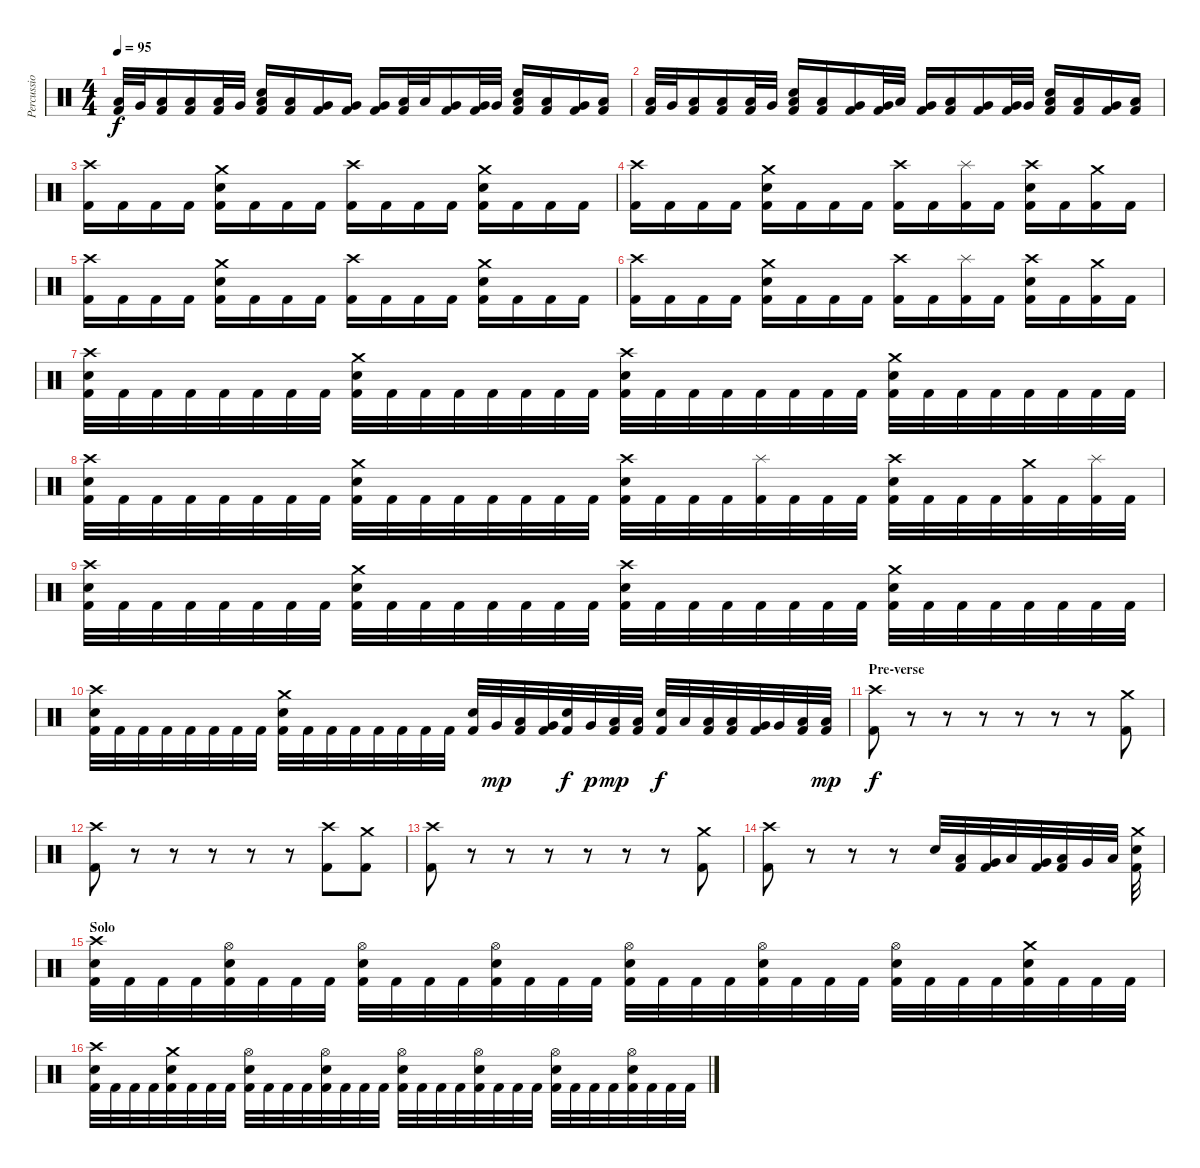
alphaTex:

\track (" Percussions" " Percussio") {instrument percussion}
\staff {score}
\articulation defaults
\ts (4 4)
\tempo 95
\clef neutral
\ks c
("Low Tom (hit)" "Kick (hit) 2").32{dy f} "Very Low Tom (hit)".32 ("Low Floor Tom (hit)" "Kick (hit) 2").16 ("Low Floor Tom (hit)" "Kick (hit) 2").16 ("Low Tom (hit)" "Kick (hit) 2").32 "Very Low Tom (hit)".32 ("Low Floor Tom (hit)" "Electric Snare (hit)" "Kick (hit) 2").16 ("Low Tom (hit)" "Kick (hit) 2").16 ("Very Low Tom (hit)" "Kick (hit) 2").16 ("Very Low Tom (hit)" "Kick (hit) 2").16 ("Very Low Tom (hit)" "Kick (hit) 2").16 ("Low Floor Tom (hit)" "Kick (hit) 2").32 "Low Floor Tom (hit)".32 ("Very Low Tom (hit)" "Kick (hit) 2").16 ("Very Low Tom (hit)" "Kick (hit) 2").32 "Very Low Tom (hit)".32 ("Low Floor Tom (hit)" "Electric Snare (hit)" "Kick (hit) 2").16 ("Low Floor Tom (hit)" "Kick (hit) 2").16 ("Very Low Tom (hit)" "Kick (hit) 2").16 ("Low Floor Tom (hit)" "Kick (hit) 2").16 |
("Low Tom (hit)" "Kick (hit) 2").32 "Very Low Tom (hit)".32 ("Low Floor Tom (hit)" "Kick (hit) 2").16 ("Low Floor Tom (hit)" "Kick (hit) 2").16 ("Low Tom (hit)" "Kick (hit) 2").32 "Very Low Tom (hit)".32 ("Low Floor Tom (hit)" "Electric Snare (hit)" "Kick (hit) 2").16 ("Low Tom (hit)" "Kick (hit) 2").16 ("Very Low Tom (hit)" "Kick (hit) 2").16 ("Very Low Tom (hit)" "Kick (hit) 2").32 "Low Floor Tom (hit)".32 ("Very Low Tom (hit)" "Kick (hit) 2").16 ("Low Floor Tom (hit)" "Kick (hit) 2").16 ("Very Low Tom (hit)" "Kick (hit) 2").16 ("Very Low Tom (hit)" "Kick (hit) 2").32 "Very Low Tom (hit)".32 ("Low Floor Tom (hit)" "Electric Snare (hit)" "Kick (hit) 2").16 ("Low Floor Tom (hit)" "Kick (hit) 2").16 ("Very Low Tom (hit)" "Kick (hit) 2").16 ("Low Floor Tom (hit)" "Kick (hit) 2").16 |
("Crash high (hit)" "Kick (hit) 2").16 "Kick (hit) 2".16 "Kick (hit) 2".16 "Kick (hit) 2".16 ("Crash medium (hit)" "Electric Snare (hit)" "Kick (hit) 2").16 "Kick (hit) 2".16 "Kick (hit) 2".16 "Kick (hit) 2".16 ("Crash high (hit)" "Kick (hit) 2").16 "Kick (hit) 2".16 "Kick (hit) 2".16 "Kick (hit) 2".16 ("Crash medium (hit)" "Electric Snare (hit)" "Kick (hit) 2").16 "Kick (hit) 2".16 "Kick (hit) 2".16 "Kick (hit) 2".16 |
("Crash high (hit)" "Kick (hit) 2").16 "Kick (hit) 2".16 "Kick (hit) 2".16 "Kick (hit) 2".16 ("Crash medium (hit)" "Electric Snare (hit)" "Kick (hit) 2").16 "Kick (hit) 2".16 "Kick (hit) 2".16 "Kick (hit) 2".16 ("Crash high (hit)" "Kick (hit) 2").16 "Kick (hit) 2".16 ("Splash (hit)" "Kick (hit) 2").16 "Kick (hit) 2".16 ("Crash high (hit)" "Electric Snare (hit)" "Kick (hit) 2").16 "Kick (hit) 2".16 ("Crash medium (hit)" "Kick (hit) 2").16 "Kick (hit) 2".16 |
("Crash high (hit)" "Kick (hit) 2").16 "Kick (hit) 2".16 "Kick (hit) 2".16 "Kick (hit) 2".16 ("Crash medium (hit)" "Electric Snare (hit)" "Kick (hit) 2").16 "Kick (hit) 2".16 "Kick (hit) 2".16 "Kick (hit) 2".16 ("Crash high (hit)" "Kick (hit) 2").16 "Kick (hit) 2".16 "Kick (hit) 2".16 "Kick (hit) 2".16 ("Crash medium (hit)" "Electric Snare (hit)" "Kick (hit) 2").16 "Kick (hit) 2".16 "Kick (hit) 2".16 "Kick (hit) 2".16 |
("Crash high (hit)" "Kick (hit) 2").16 "Kick (hit) 2".16 "Kick (hit) 2".16 "Kick (hit) 2".16 ("Crash medium (hit)" "Electric Snare (hit)" "Kick (hit) 2").16 "Kick (hit) 2".16 "Kick (hit) 2".16 "Kick (hit) 2".16 ("Crash high (hit)" "Kick (hit) 2").16 "Kick (hit) 2".16 ("Splash (hit)" "Kick (hit) 2").16 "Kick (hit) 2".16 ("Crash high (hit)" "Electric Snare (hit)" "Kick (hit) 2").16 "Kick (hit) 2".16 ("Crash medium (hit)" "Kick (hit) 2").16 "Kick (hit) 2".16 |
("Crash high (hit)" "Electric Snare (hit)" "Kick (hit) 2").32 "Kick (hit) 2".32 "Kick (hit) 2".32 "Kick (hit) 2".32 "Kick (hit) 2".32 "Kick (hit) 2".32 "Kick (hit) 2".32 "Kick (hit) 2".32 ("Crash medium (hit)" "Electric Snare (hit)" "Kick (hit) 2").32 "Kick (hit) 2".32 "Kick (hit) 2".32 "Kick (hit) 2".32 "Kick (hit) 2".32 "Kick (hit) 2".32 "Kick (hit) 2".32 "Kick (hit) 2".32 ("Crash high (hit)" "Electric Snare (hit)" "Kick (hit) 2").32 "Kick (hit) 2".32 "Kick (hit) 2".32 "Kick (hit) 2".32 "Kick (hit) 2".32 "Kick (hit) 2".32 "Kick (hit) 2".32 "Kick (hit) 2".32 ("Crash medium (hit)" "Electric Snare (hit)" "Kick (hit) 2").32 "Kick (hit) 2".32 "Kick (hit) 2".32 "Kick (hit) 2".32 "Kick (hit) 2".32 "Kick (hit) 2".32 "Kick (hit) 2".32 "Kick (hit) 2".32 |
("Crash high (hit)" "Electric Snare (hit)" "Kick (hit) 2").32 "Kick (hit) 2".32 "Kick (hit) 2".32 "Kick (hit) 2".32 "Kick (hit) 2".32 "Kick (hit) 2".32 "Kick (hit) 2".32 "Kick (hit) 2".32 ("Crash medium (hit)" "Electric Snare (hit)" "Kick (hit) 2").32 "Kick (hit) 2".32 "Kick (hit) 2".32 "Kick (hit) 2".32 "Kick (hit) 2".32 "Kick (hit) 2".32 "Kick (hit) 2".32 "Kick (hit) 2".32 ("Crash high (hit)" "Electric Snare (hit)" "Kick (hit) 2").32 "Kick (hit) 2".32 "Kick (hit) 2".32 "Kick (hit) 2".32 ("Splash (hit)" "Kick (hit) 2").32 "Kick (hit) 2".32 "Kick (hit) 2".32 "Kick (hit) 2".32 ("Crash high (hit)" "Electric Snare (hit)" "Kick (hit) 2").32 "Kick (hit) 2".32 "Kick (hit) 2".32 "Kick (hit) 2".32 ("Crash medium (hit)" "Kick (hit) 2").32 "Kick (hit) 2".32 ("Splash (hit)" "Kick (hit) 2").32 "Kick (hit) 2".32 |
("Crash high (hit)" "Electric Snare (hit)" "Kick (hit) 2").32 "Kick (hit) 2".32 "Kick (hit) 2".32 "Kick (hit) 2".32 "Kick (hit) 2".32 "Kick (hit) 2".32 "Kick (hit) 2".32 "Kick (hit) 2".32 ("Crash medium (hit)" "Electric Snare (hit)" "Kick (hit) 2").32 "Kick (hit) 2".32 "Kick (hit) 2".32 "Kick (hit) 2".32 "Kick (hit) 2".32 "Kick (hit) 2".32 "Kick (hit) 2".32 "Kick (hit) 2".32 ("Crash high (hit)" "Electric Snare (hit)" "Kick (hit) 2").32 "Kick (hit) 2".32 "Kick (hit) 2".32 "Kick (hit) 2".32 "Kick (hit) 2".32 "Kick (hit) 2".32 "Kick (hit) 2".32 "Kick (hit) 2".32 ("Crash medium (hit)" "Electric Snare (hit)" "Kick (hit) 2").32 "Kick (hit) 2".32 "Kick (hit) 2".32 "Kick (hit) 2".32 "Kick (hit) 2".32 "Kick (hit) 2".32 "Kick (hit) 2".32 "Kick (hit) 2".32 |
("Crash high (hit)" "Electric Snare (hit)" "Kick (hit) 2").32 "Kick (hit) 2".32 "Kick (hit) 2".32 "Kick (hit) 2".32 "Kick (hit) 2".32 "Kick (hit) 2".32 "Kick (hit) 2".32 "Kick (hit) 2".32 ("Crash medium (hit)" "Electric Snare (hit)" "Kick (hit) 2").32 "Kick (hit) 2".32 "Kick (hit) 2".32 "Kick (hit) 2".32 "Kick (hit) 2".32 "Kick (hit) 2".32 "Kick (hit) 2".32 "Kick (hit) 2".32 ("Electric Snare (hit)" "Kick (hit) 2").32 "Very Low Tom (hit)".32{dy mp} ("Low Tom (hit)" "Kick (hit) 2").32 ("Very Low Tom (hit)" "Kick (hit) 2").32 ("Electric Snare (hit)" "Kick (hit) 2").32{dy f} "Very Low Tom (hit)".32{dy p} ("Low Floor Tom (hit)" "Kick (hit) 2").32{dy mp} ("Low Floor Tom (hit)" "Kick (hit) 2").32 ("Electric Snare (hit)" "Kick (hit) 2").32{dy f} "Low Tom (hit)".32 ("Low Tom (hit)" "Kick (hit) 2").32 ("Low Tom (hit)" "Kick (hit) 2").32 ("Very Low Tom (hit)" "Kick (hit) 2").32 "Very Low Tom (hit)".32 ("Low Floor Tom (hit)" "Kick (hit) 2").32 ("Low Floor Tom (hit)" "Kick (hit) 2").32{dy mp} |
\section ("" "Pre-verse")
("Crash high (hit)" "Kick (hit) 2").8{dy f} r.8 r.8 r.8 r.8 r.8 r.8 ("Crash medium (hit)" "Kick (hit) 2").8 |
("Crash high (hit)" "Kick (hit) 2").8 r.8 r.8 r.8 r.8 r.8 ("Crash high (hit)" "Kick (hit) 2").8 ("Crash medium (hit)" "Kick (hit) 2").8 |
("Crash high (hit)" "Kick (hit) 2").8 r.8 r.8 r.8 r.8 r.8 r.8 ("Crash medium (hit)" "Kick (hit) 2").8 |
("Crash high (hit)" "Kick (hit) 2").8 r.8 r.8 r.8 "Electric Snare (hit)".32 ("Low Tom (hit)" "Kick (hit) 2").32 ("Very Low Tom (hit)" "Kick (hit) 2").32 "Low Tom (hit)".32 ("Very Low Tom (hit)" "Kick (hit) 2").32 ("Low Floor Tom (hit)" "Kick (hit) 2").32 "Very Low Tom (hit)".32 "Low Floor Tom (hit)".32 ("Crash medium (hit)" "Electric Snare (hit)" "Kick (hit) 2").32 |
\section ("" "Solo")
("Crash high (hit)" "Electric Snare (hit)" "Kick (hit) 2").32 "Kick (hit) 2".32 "Kick (hit) 2".32 "Kick (hit) 2".32 ("Hi-Hat (open)" "Electric Snare (hit)" "Kick (hit) 2").32 "Kick (hit) 2".32 "Kick (hit) 2".32 "Kick (hit) 2".32 ("Hi-Hat (open)" "Electric Snare (hit)" "Kick (hit) 2").32 "Kick (hit) 2".32 "Kick (hit) 2".32 "Kick (hit) 2".32 ("Hi-Hat (open)" "Electric Snare (hit)" "Kick (hit) 2").32 "Kick (hit) 2".32 "Kick (hit) 2".32 "Kick (hit) 2".32 ("Hi-Hat (open)" "Electric Snare (hit)" "Kick (hit) 2").32 "Kick (hit) 2".32 "Kick (hit) 2".32 "Kick (hit) 2".32 ("Hi-Hat (open)" "Electric Snare (hit)" "Kick (hit) 2").32 "Kick (hit) 2".32 "Kick (hit) 2".32 "Kick (hit) 2".32 ("Hi-Hat (open)" "Electric Snare (hit)" "Kick (hit) 2").32 "Kick (hit) 2".32 "Kick (hit) 2".32 "Kick (hit) 2".32 ("Crash medium (hit)" "Electric Snare (hit)" "Kick (hit) 2").32 "Kick (hit) 2".32 "Kick (hit) 2".32 "Kick (hit) 2".32 |
("Crash high (hit)" "Electric Snare (hit)" "Kick (hit) 2").32 "Kick (hit) 2".32 "Kick (hit) 2".32 "Kick (hit) 2".32 ("Crash medium (hit)" "Electric Snare (hit)" "Kick (hit) 2").32 "Kick (hit) 2".32 "Kick (hit) 2".32 "Kick (hit) 2".32 ("Hi-Hat (open)" "Electric Snare (hit)" "Kick (hit) 2").32 "Kick (hit) 2".32 "Kick (hit) 2".32 "Kick (hit) 2".32 ("Hi-Hat (open)" "Electric Snare (hit)" "Kick (hit) 2").32 "Kick (hit) 2".32 "Kick (hit) 2".32 "Kick (hit) 2".32 ("Hi-Hat (open)" "Electric Snare (hit)" "Kick (hit) 2").32 "Kick (hit) 2".32 "Kick (hit) 2".32 "Kick (hit) 2".32 ("Hi-Hat (open)" "Electric Snare (hit)" "Kick (hit) 2").32 "Kick (hit) 2".32 "Kick (hit) 2".32 "Kick (hit) 2".32 ("Hi-Hat (open)" "Electric Snare (hit)" "Kick (hit) 2").32 "Kick (hit) 2".32 "Kick (hit) 2".32 "Kick (hit) 2".32 ("Hi-Hat (open)" "Electric Snare (hit)" "Kick (hit) 2").32 "Kick (hit) 2".32 "Kick (hit) 2".32 "Kick (hit) 2".32
